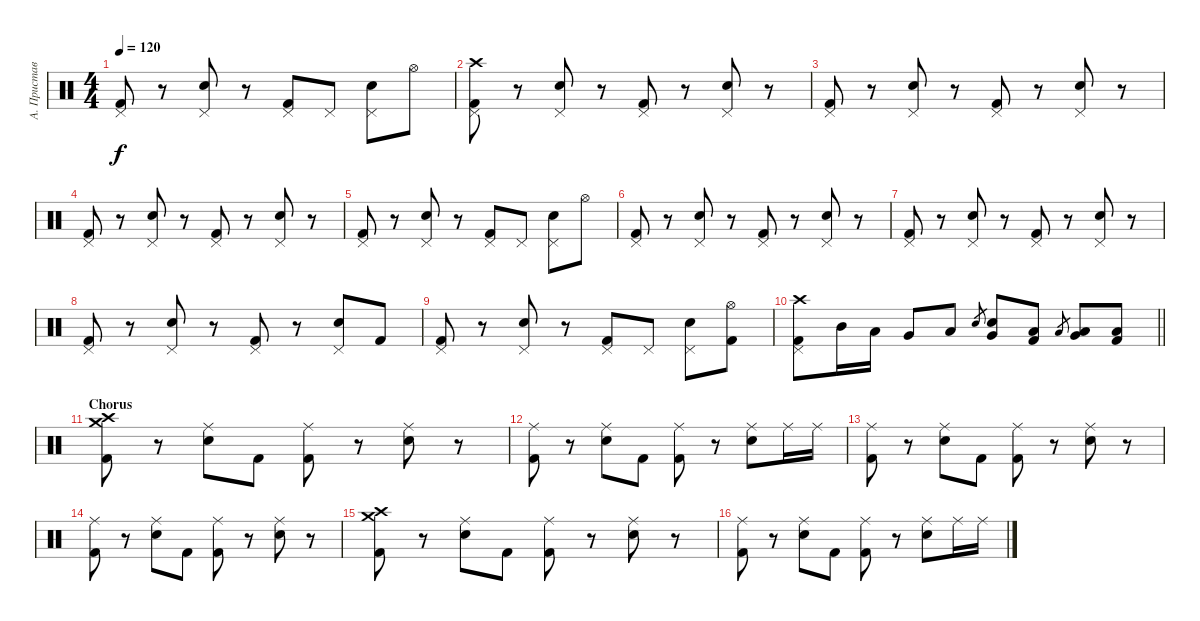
\track ("А. Приставка" "А. Пристав") {instrument percussion}
\staff {score}
\articulation defaults
\ts (4 4)
\tempo 120
\clef neutral
\ks c
("Pedal Hi-Hat (hit)" "Kick (hit) 2").8{dy f} r.8 ("Pedal Hi-Hat (hit)" "Electric Snare (hit)").8 r.8 ("Pedal Hi-Hat (hit)" "Kick (hit) 2").8 "Pedal Hi-Hat (hit)".8 ("Pedal Hi-Hat (hit)" "Electric Snare (hit)").8 "Hi-Hat (open)".8 |
("Crash high (hit)" "Pedal Hi-Hat (hit)" "Kick (hit) 2").8 r.8 ("Pedal Hi-Hat (hit)" "Electric Snare (hit)").8 r.8 ("Pedal Hi-Hat (hit)" "Kick (hit) 2").8 r.8 ("Pedal Hi-Hat (hit)" "Electric Snare (hit)").8 r.8 |
("Pedal Hi-Hat (hit)" "Kick (hit) 2").8 r.8 ("Pedal Hi-Hat (hit)" "Electric Snare (hit)").8 r.8 ("Pedal Hi-Hat (hit)" "Kick (hit) 2").8 r.8 ("Pedal Hi-Hat (hit)" "Electric Snare (hit)").8 r.8 |
("Pedal Hi-Hat (hit)" "Kick (hit) 2").8 r.8 ("Pedal Hi-Hat (hit)" "Electric Snare (hit)").8 r.8 ("Pedal Hi-Hat (hit)" "Kick (hit) 2").8 r.8 ("Pedal Hi-Hat (hit)" "Electric Snare (hit)").8 r.8 |
("Pedal Hi-Hat (hit)" "Kick (hit) 2").8 r.8 ("Pedal Hi-Hat (hit)" "Electric Snare (hit)").8 r.8 ("Pedal Hi-Hat (hit)" "Kick (hit) 2").8 "Pedal Hi-Hat (hit)".8 ("Pedal Hi-Hat (hit)" "Electric Snare (hit)").8 "Hi-Hat (open)".8 |
("Pedal Hi-Hat (hit)" "Kick (hit) 2").8 r.8 ("Pedal Hi-Hat (hit)" "Electric Snare (hit)").8 r.8 ("Pedal Hi-Hat (hit)" "Kick (hit) 2").8 r.8 ("Pedal Hi-Hat (hit)" "Electric Snare (hit)").8 r.8 |
("Pedal Hi-Hat (hit)" "Kick (hit) 2").8 r.8 ("Pedal Hi-Hat (hit)" "Electric Snare (hit)").8 r.8 ("Pedal Hi-Hat (hit)" "Kick (hit) 2").8 r.8 ("Pedal Hi-Hat (hit)" "Electric Snare (hit)").8 r.8 |
("Pedal Hi-Hat (hit)" "Kick (hit) 2").8 r.8 ("Pedal Hi-Hat (hit)" "Electric Snare (hit)").8 r.8 ("Pedal Hi-Hat (hit)" "Kick (hit) 2").8 r.8 ("Pedal Hi-Hat (hit)" "Electric Snare (hit)").8 "Kick (hit) 2".8 |
("Pedal Hi-Hat (hit)" "Kick (hit) 2").8 r.8 ("Pedal Hi-Hat (hit)" "Electric Snare (hit)").8 r.8 ("Pedal Hi-Hat (hit)" "Kick (hit) 2").8 "Pedal Hi-Hat (hit)".8 ("Pedal Hi-Hat (hit)" "Electric Snare (hit)").8 ("Hi-Hat (open)" "Kick (hit) 2").8 |
\barLineRight lightlight
("Crash high (hit)" "Pedal Hi-Hat (hit)" "Kick (hit) 2").8 "Mid Tom (hit)".16 "Low Tom (hit)".16 "Very Low Tom (hit)".8 "Low Floor Tom (hit)".8 "Electric Snare (hit)".8{gr} ("Electric Snare (hit)" "Very Low Tom (hit)").8 ("Low Floor Tom (hit)" "Kick (hit) 2").8 "Low Tom (hit)".8{gr} ("Low Tom (hit)" "Very Low Tom (hit)").8 ("Low Floor Tom (hit)" "Kick (hit) 2").8 |
\section ("" "Chorus")
("Crash high (hit)" "Crash medium (hit)" "Kick (hit) 2").8 r.8 ("Ride (middle)" "Electric Snare (hit)").8 "Kick (hit) 2".8 ("Ride (middle)" "Kick (hit) 2").8 r.8 ("Ride (middle)" "Electric Snare (hit)").8 r.8 |
("Ride (middle)" "Kick (hit) 2").8 r.8 ("Ride (middle)" "Electric Snare (hit)").8 "Kick (hit) 2".8 ("Ride (middle)" "Kick (hit) 2").8 r.8 ("Ride (middle)" "Electric Snare (hit)").8 "Ride (middle)".16 "Ride (middle)".16 |
("Ride (middle)" "Kick (hit) 2").8 r.8 ("Ride (middle)" "Electric Snare (hit)").8 "Kick (hit) 2".8 ("Ride (middle)" "Kick (hit) 2").8 r.8 ("Ride (middle)" "Electric Snare (hit)").8 r.8 |
("Ride (middle)" "Kick (hit) 2").8 r.8 ("Ride (middle)" "Electric Snare (hit)").8 "Kick (hit) 2".8 ("Ride (middle)" "Kick (hit) 2").8 r.8 ("Ride (middle)" "Electric Snare (hit)").8 r.8 |
("Crash high (hit)" "Crash medium (hit)" "Kick (hit) 2").8 r.8 ("Ride (middle)" "Electric Snare (hit)").8 "Kick (hit) 2".8 ("Ride (middle)" "Kick (hit) 2").8 r.8 ("Ride (middle)" "Electric Snare (hit)").8 r.8 |
("Ride (middle)" "Kick (hit) 2").8 r.8 ("Ride (middle)" "Electric Snare (hit)").8 "Kick (hit) 2".8 ("Ride (middle)" "Kick (hit) 2").8 r.8 ("Ride (middle)" "Electric Snare (hit)").8 "Ride (middle)".16 "Ride (middle)".16
